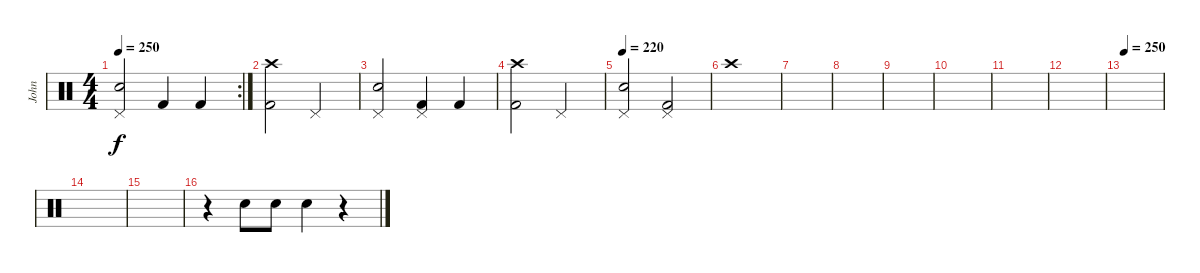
\track ("John" "John") {instrument percussion}
\staff {score}
\articulation defaults
\rc 2
\ts (4 4)
\tempo 250
\clef neutral
\ks c
("Pedal Hi-Hat (hit)" "Electric Snare (hit)").2{dy f} "Kick (hit) 2".4 "Kick (hit) 2".4 |
("Crash high (hit)" "Kick (hit) 2").2 "Pedal Hi-Hat (hit)".2 |
("Pedal Hi-Hat (hit)" "Electric Snare (hit)").2 ("Pedal Hi-Hat (hit)" "Kick (hit) 2").4 "Kick (hit) 2".4 |
("Crash high (hit)" "Kick (hit) 2").2 "Pedal Hi-Hat (hit)".2 |
\tempo 220
("Pedal Hi-Hat (hit)" "Electric Snare (hit)").2 ("Pedal Hi-Hat (hit)" "Kick (hit) 2").2 |
"Crash high (hit)".1 |
|
|
|
|
|
|
\tempo 250
|
|
|
r.4 "Electric Snare (hit)".8 "Electric Snare (hit)".8 "Electric Snare (hit)".4 r.4
